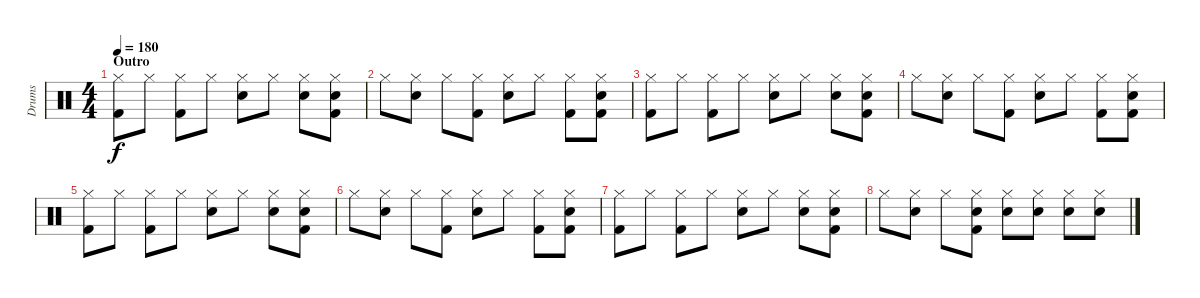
\track ("Drums" "Drums") {instrument percussion}
\staff {score}
\articulation defaults
\ts (4 4)
\section ("" "Outro")
\tempo 180
\clef neutral
\ks c
("Hi-Hat (closed)" "Kick (hit) 2").8{dy f} "Hi-Hat (closed)".8 ("Hi-Hat (closed)" "Kick (hit) 2").8 "Hi-Hat (closed)".8 ("Hi-Hat (closed)" "Snare (hit) 2").8 "Hi-Hat (closed)".8 ("Hi-Hat (closed)" "Snare (hit) 2").8 ("Hi-Hat (closed)" "Snare (hit) 2" "Kick (hit) 2").8 |
"Hi-Hat (closed)".8 ("Hi-Hat (closed)" "Snare (hit) 2").8 "Hi-Hat (closed)".8 ("Hi-Hat (closed)" "Kick (hit) 2").8 ("Hi-Hat (closed)" "Snare (hit) 2").8 "Hi-Hat (closed)".8 ("Hi-Hat (closed)" "Kick (hit) 2").8 ("Hi-Hat (closed)" "Snare (hit) 2" "Kick (hit) 2").8 |
("Hi-Hat (closed)" "Kick (hit) 2").8 "Hi-Hat (closed)".8 ("Hi-Hat (closed)" "Kick (hit) 2").8 "Hi-Hat (closed)".8 ("Hi-Hat (closed)" "Snare (hit) 2").8 "Hi-Hat (closed)".8 ("Hi-Hat (closed)" "Snare (hit) 2").8 ("Hi-Hat (closed)" "Snare (hit) 2" "Kick (hit) 2").8 |
"Hi-Hat (closed)".8 ("Hi-Hat (closed)" "Snare (hit) 2").8 "Hi-Hat (closed)".8 ("Hi-Hat (closed)" "Kick (hit) 2").8 ("Hi-Hat (closed)" "Snare (hit) 2").8 "Hi-Hat (closed)".8 ("Hi-Hat (closed)" "Kick (hit) 2").8 ("Hi-Hat (closed)" "Snare (hit) 2" "Kick (hit) 2").8 |
("Hi-Hat (closed)" "Kick (hit) 2").8 "Hi-Hat (closed)".8 ("Hi-Hat (closed)" "Kick (hit) 2").8 "Hi-Hat (closed)".8 ("Hi-Hat (closed)" "Snare (hit) 2").8 "Hi-Hat (closed)".8 ("Hi-Hat (closed)" "Snare (hit) 2").8 ("Hi-Hat (closed)" "Snare (hit) 2" "Kick (hit) 2").8 |
"Hi-Hat (closed)".8 ("Hi-Hat (closed)" "Snare (hit) 2").8 "Hi-Hat (closed)".8 ("Hi-Hat (closed)" "Kick (hit) 2").8 ("Hi-Hat (closed)" "Snare (hit) 2").8 "Hi-Hat (closed)".8 ("Hi-Hat (closed)" "Kick (hit) 2").8 ("Hi-Hat (closed)" "Snare (hit) 2" "Kick (hit) 2").8 |
("Hi-Hat (closed)" "Kick (hit) 2").8 "Hi-Hat (closed)".8 ("Hi-Hat (closed)" "Kick (hit) 2").8 "Hi-Hat (closed)".8 ("Hi-Hat (closed)" "Snare (hit) 2").8 "Hi-Hat (closed)".8 ("Hi-Hat (closed)" "Snare (hit) 2").8 ("Hi-Hat (closed)" "Snare (hit) 2" "Kick (hit) 2").8 |
"Hi-Hat (closed)".8 ("Hi-Hat (closed)" "Snare (hit) 2").8 "Hi-Hat (closed)".8 ("Hi-Hat (closed)" "Snare (hit) 2" "Kick (hit) 2").8 ("Hi-Hat (closed)" "Snare (hit) 2").8 ("Hi-Hat (closed)" "Snare (hit) 2").8 ("Hi-Hat (closed)" "Snare (hit) 2").8 ("Hi-Hat (closed)" "Snare (hit) 2").8
